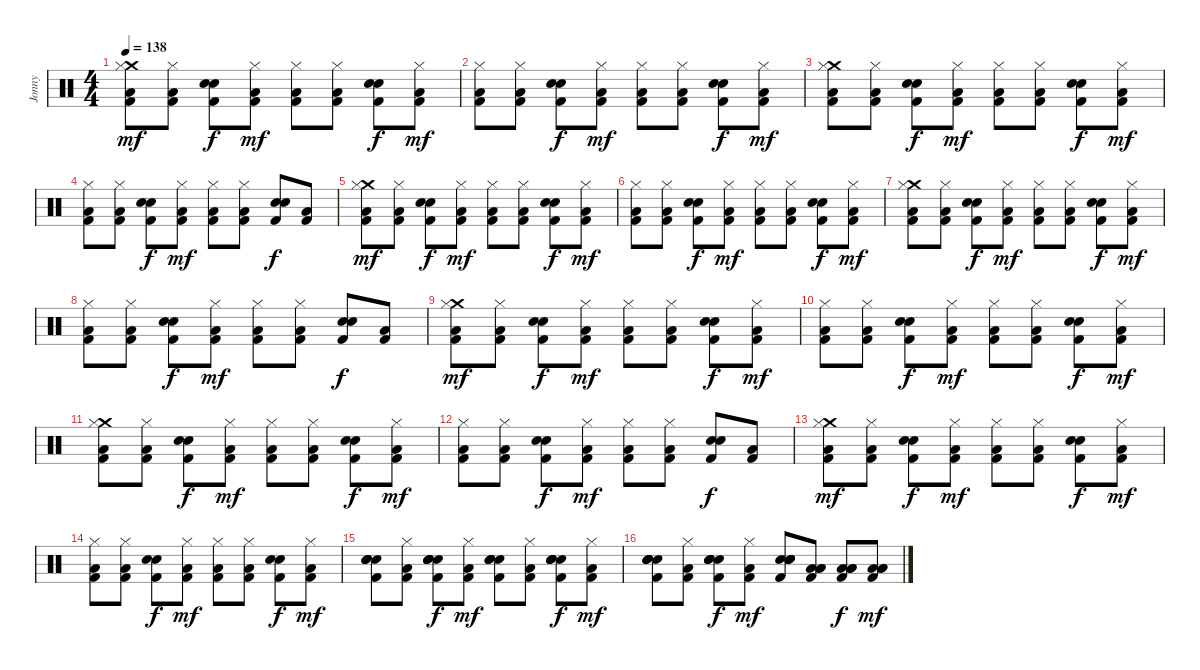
\track ("Jonny" "Jonny") {instrument percussion}
\staff {score}
\articulation defaults
\ts (4 4)
\tempo 138
\clef neutral
\ks c
("Crash medium (hit)" "Hi-Hat (closed)" "Low Floor Tom (hit)" "Kick (hit) 2").8{dy mf} ("Hi-Hat (closed)" "Low Floor Tom (hit)" "Kick (hit) 2").8 ("Electric Snare (hit)" "Electric Snare (hit)" "Kick (hit) 2").8{dy f} ("Hi-Hat (closed)" "Low Floor Tom (hit)" "Kick (hit) 2").8{dy mf} ("Hi-Hat (closed)" "Low Floor Tom (hit)" "Kick (hit) 2").8 ("Hi-Hat (closed)" "Low Floor Tom (hit)" "Kick (hit) 2").8 ("Electric Snare (hit)" "Electric Snare (hit)" "Kick (hit) 2").8{dy f} ("Hi-Hat (closed)" "Low Floor Tom (hit)" "Kick (hit) 2").8{dy mf} |
("Hi-Hat (closed)" "Low Floor Tom (hit)" "Kick (hit) 2").8 ("Hi-Hat (closed)" "Low Floor Tom (hit)" "Kick (hit) 2").8 ("Electric Snare (hit)" "Electric Snare (hit)" "Kick (hit) 2").8{dy f} ("Hi-Hat (closed)" "Low Floor Tom (hit)" "Kick (hit) 2").8{dy mf} ("Hi-Hat (closed)" "Low Floor Tom (hit)" "Kick (hit) 2").8 ("Hi-Hat (closed)" "Low Floor Tom (hit)" "Kick (hit) 2").8 ("Electric Snare (hit)" "Electric Snare (hit)" "Kick (hit) 2").8{dy f} ("Hi-Hat (closed)" "Low Floor Tom (hit)" "Kick (hit) 2").8{dy mf} |
("Crash medium (hit)" "Hi-Hat (closed)" "Low Floor Tom (hit)" "Kick (hit) 2").8 ("Hi-Hat (closed)" "Low Floor Tom (hit)" "Kick (hit) 2").8 ("Electric Snare (hit)" "Electric Snare (hit)" "Kick (hit) 2").8{dy f} ("Hi-Hat (closed)" "Low Floor Tom (hit)" "Kick (hit) 2").8{dy mf} ("Hi-Hat (closed)" "Low Floor Tom (hit)" "Kick (hit) 2").8 ("Hi-Hat (closed)" "Low Floor Tom (hit)" "Kick (hit) 2").8 ("Electric Snare (hit)" "Electric Snare (hit)" "Kick (hit) 2").8{dy f} ("Hi-Hat (closed)" "Low Floor Tom (hit)" "Kick (hit) 2").8{dy mf} |
("Hi-Hat (closed)" "Low Floor Tom (hit)" "Kick (hit) 2").8 ("Hi-Hat (closed)" "Low Floor Tom (hit)" "Kick (hit) 2").8 ("Electric Snare (hit)" "Electric Snare (hit)" "Kick (hit) 2").8{dy f} ("Hi-Hat (closed)" "Low Floor Tom (hit)" "Kick (hit) 2").8{dy mf} ("Hi-Hat (closed)" "Low Floor Tom (hit)" "Kick (hit) 2").8 ("Hi-Hat (closed)" "Low Floor Tom (hit)" "Kick (hit) 2").8 ("Electric Snare (hit)" "Electric Snare (hit)" "Kick (hit) 2").8{dy f} ("Low Floor Tom (hit)" "Kick (hit) 2").8 |
("Crash medium (hit)" "Hi-Hat (closed)" "Low Floor Tom (hit)" "Kick (hit) 2").8{dy mf} ("Hi-Hat (closed)" "Low Floor Tom (hit)" "Kick (hit) 2").8 ("Electric Snare (hit)" "Electric Snare (hit)" "Kick (hit) 2").8{dy f} ("Hi-Hat (closed)" "Low Floor Tom (hit)" "Kick (hit) 2").8{dy mf} ("Hi-Hat (closed)" "Low Floor Tom (hit)" "Kick (hit) 2").8 ("Hi-Hat (closed)" "Low Floor Tom (hit)" "Kick (hit) 2").8 ("Electric Snare (hit)" "Electric Snare (hit)" "Kick (hit) 2").8{dy f} ("Hi-Hat (closed)" "Low Floor Tom (hit)" "Kick (hit) 2").8{dy mf} |
("Hi-Hat (closed)" "Low Floor Tom (hit)" "Kick (hit) 2").8 ("Hi-Hat (closed)" "Low Floor Tom (hit)" "Kick (hit) 2").8 ("Electric Snare (hit)" "Electric Snare (hit)" "Kick (hit) 2").8{dy f} ("Hi-Hat (closed)" "Low Floor Tom (hit)" "Kick (hit) 2").8{dy mf} ("Hi-Hat (closed)" "Low Floor Tom (hit)" "Kick (hit) 2").8 ("Hi-Hat (closed)" "Low Floor Tom (hit)" "Kick (hit) 2").8 ("Electric Snare (hit)" "Electric Snare (hit)" "Kick (hit) 2").8{dy f} ("Hi-Hat (closed)" "Low Floor Tom (hit)" "Kick (hit) 2").8{dy mf} |
("Crash medium (hit)" "Hi-Hat (closed)" "Low Floor Tom (hit)" "Kick (hit) 2").8 ("Hi-Hat (closed)" "Low Floor Tom (hit)" "Kick (hit) 2").8 ("Electric Snare (hit)" "Electric Snare (hit)" "Kick (hit) 2").8{dy f} ("Hi-Hat (closed)" "Low Floor Tom (hit)" "Kick (hit) 2").8{dy mf} ("Hi-Hat (closed)" "Low Floor Tom (hit)" "Kick (hit) 2").8 ("Hi-Hat (closed)" "Low Floor Tom (hit)" "Kick (hit) 2").8 ("Electric Snare (hit)" "Electric Snare (hit)" "Kick (hit) 2").8{dy f} ("Hi-Hat (closed)" "Low Floor Tom (hit)" "Kick (hit) 2").8{dy mf} |
("Hi-Hat (closed)" "Low Floor Tom (hit)" "Kick (hit) 2").8 ("Hi-Hat (closed)" "Low Floor Tom (hit)" "Kick (hit) 2").8 ("Electric Snare (hit)" "Electric Snare (hit)" "Kick (hit) 2").8{dy f} ("Hi-Hat (closed)" "Low Floor Tom (hit)" "Kick (hit) 2").8{dy mf} ("Hi-Hat (closed)" "Low Floor Tom (hit)" "Kick (hit) 2").8 ("Hi-Hat (closed)" "Low Floor Tom (hit)" "Kick (hit) 2").8 ("Electric Snare (hit)" "Electric Snare (hit)" "Kick (hit) 2").8{dy f} ("Low Floor Tom (hit)" "Kick (hit) 2").8 |
("Crash medium (hit)" "Hi-Hat (closed)" "Low Floor Tom (hit)" "Kick (hit) 2").8{dy mf} ("Hi-Hat (closed)" "Low Floor Tom (hit)" "Kick (hit) 2").8 ("Electric Snare (hit)" "Electric Snare (hit)" "Kick (hit) 2").8{dy f} ("Hi-Hat (closed)" "Low Floor Tom (hit)" "Kick (hit) 2").8{dy mf} ("Hi-Hat (closed)" "Low Floor Tom (hit)" "Kick (hit) 2").8 ("Hi-Hat (closed)" "Low Floor Tom (hit)" "Kick (hit) 2").8 ("Electric Snare (hit)" "Electric Snare (hit)" "Kick (hit) 2").8{dy f} ("Hi-Hat (closed)" "Low Floor Tom (hit)" "Kick (hit) 2").8{dy mf} |
("Hi-Hat (closed)" "Low Floor Tom (hit)" "Kick (hit) 2").8 ("Hi-Hat (closed)" "Low Floor Tom (hit)" "Kick (hit) 2").8 ("Electric Snare (hit)" "Electric Snare (hit)" "Kick (hit) 2").8{dy f} ("Hi-Hat (closed)" "Low Floor Tom (hit)" "Kick (hit) 2").8{dy mf} ("Hi-Hat (closed)" "Low Floor Tom (hit)" "Kick (hit) 2").8 ("Hi-Hat (closed)" "Low Floor Tom (hit)" "Kick (hit) 2").8 ("Electric Snare (hit)" "Electric Snare (hit)" "Kick (hit) 2").8{dy f} ("Hi-Hat (closed)" "Low Floor Tom (hit)" "Kick (hit) 2").8{dy mf} |
("Crash medium (hit)" "Hi-Hat (closed)" "Low Floor Tom (hit)" "Kick (hit) 2").8 ("Hi-Hat (closed)" "Low Floor Tom (hit)" "Kick (hit) 2").8 ("Electric Snare (hit)" "Electric Snare (hit)" "Kick (hit) 2").8{dy f} ("Hi-Hat (closed)" "Low Floor Tom (hit)" "Kick (hit) 2").8{dy mf} ("Hi-Hat (closed)" "Low Floor Tom (hit)" "Kick (hit) 2").8 ("Hi-Hat (closed)" "Low Floor Tom (hit)" "Kick (hit) 2").8 ("Electric Snare (hit)" "Electric Snare (hit)" "Kick (hit) 2").8{dy f} ("Hi-Hat (closed)" "Low Floor Tom (hit)" "Kick (hit) 2").8{dy mf} |
("Hi-Hat (closed)" "Low Floor Tom (hit)" "Kick (hit) 2").8 ("Hi-Hat (closed)" "Low Floor Tom (hit)" "Kick (hit) 2").8 ("Electric Snare (hit)" "Electric Snare (hit)" "Kick (hit) 2").8{dy f} ("Hi-Hat (closed)" "Low Floor Tom (hit)" "Kick (hit) 2").8{dy mf} ("Hi-Hat (closed)" "Low Floor Tom (hit)" "Kick (hit) 2").8 ("Hi-Hat (closed)" "Low Floor Tom (hit)" "Kick (hit) 2").8 ("Electric Snare (hit)" "Electric Snare (hit)" "Kick (hit) 2").8{dy f} ("Low Floor Tom (hit)" "Kick (hit) 2").8 |
("Crash medium (hit)" "Hi-Hat (closed)" "Low Floor Tom (hit)" "Kick (hit) 2").8{dy mf} ("Hi-Hat (closed)" "Low Floor Tom (hit)" "Kick (hit) 2").8 ("Electric Snare (hit)" "Electric Snare (hit)" "Kick (hit) 2").8{dy f} ("Hi-Hat (closed)" "Low Floor Tom (hit)" "Kick (hit) 2").8{dy mf} ("Hi-Hat (closed)" "Low Floor Tom (hit)" "Kick (hit) 2").8 ("Hi-Hat (closed)" "Low Floor Tom (hit)" "Kick (hit) 2").8 ("Electric Snare (hit)" "Electric Snare (hit)" "Kick (hit) 2").8{dy f} ("Hi-Hat (closed)" "Low Floor Tom (hit)" "Kick (hit) 2").8{dy mf} |
("Hi-Hat (closed)" "Low Floor Tom (hit)" "Kick (hit) 2").8 ("Hi-Hat (closed)" "Low Floor Tom (hit)" "Kick (hit) 2").8 ("Electric Snare (hit)" "Electric Snare (hit)" "Kick (hit) 2").8{dy f} ("Hi-Hat (closed)" "Low Floor Tom (hit)" "Kick (hit) 2").8{dy mf} ("Hi-Hat (closed)" "Low Floor Tom (hit)" "Kick (hit) 2").8 ("Hi-Hat (closed)" "Low Floor Tom (hit)" "Kick (hit) 2").8 ("Electric Snare (hit)" "Electric Snare (hit)" "Kick (hit) 2").8{dy f} ("Hi-Hat (closed)" "Low Floor Tom (hit)" "Kick (hit) 2").8{dy mf} |
("Electric Snare (hit)" "Electric Snare (hit)" "Electric Snare (hit)" "Electric Snare (hit)" "Kick (hit) 2").8 ("Hi-Hat (closed)" "Low Floor Tom (hit)" "Kick (hit) 2").8 ("Electric Snare (hit)" "Electric Snare (hit)" "Electric Snare (hit)" "Electric Snare (hit)" "Kick (hit) 2").8{dy f} ("Hi-Hat (closed)" "Low Floor Tom (hit)" "Kick (hit) 2").8{dy mf} ("Electric Snare (hit)" "Electric Snare (hit)" "Electric Snare (hit)" "Electric Snare (hit)" "Kick (hit) 2").8 ("Hi-Hat (closed)" "Low Floor Tom (hit)" "Kick (hit) 2").8 ("Electric Snare (hit)" "Electric Snare (hit)" "Electric Snare (hit)" "Electric Snare (hit)" "Kick (hit) 2").8{dy f} ("Hi-Hat (closed)" "Low Floor Tom (hit)" "Kick (hit) 2").8{dy mf} |
("Electric Snare (hit)" "Electric Snare (hit)" "Electric Snare (hit)" "Electric Snare (hit)" "Kick (hit) 2").8 ("Hi-Hat (closed)" "Low Floor Tom (hit)" "Kick (hit) 2").8 ("Electric Snare (hit)" "Electric Snare (hit)" "Electric Snare (hit)" "Electric Snare (hit)" "Kick (hit) 2").8{dy f} ("Hi-Hat (closed)" "Low Floor Tom (hit)" "Kick (hit) 2").8{dy mf} ("Electric Snare (hit)" "Electric Snare (hit)" "Electric Snare (hit)" "Electric Snare (hit)" "Kick (hit) 2").8 ("Low Floor Tom (hit)" "Low Floor Tom (hit)" "Low Floor Tom (hit)" "Kick (hit) 2").8 ("Low Floor Tom (hit)" "Low Floor Tom (hit)" "Low Floor Tom (hit)" "Kick (hit) 2").8{dy f} ("Low Floor Tom (hit)" "Low Floor Tom (hit)" "Low Floor Tom (hit)" "Kick (hit) 2").8{dy mf}
